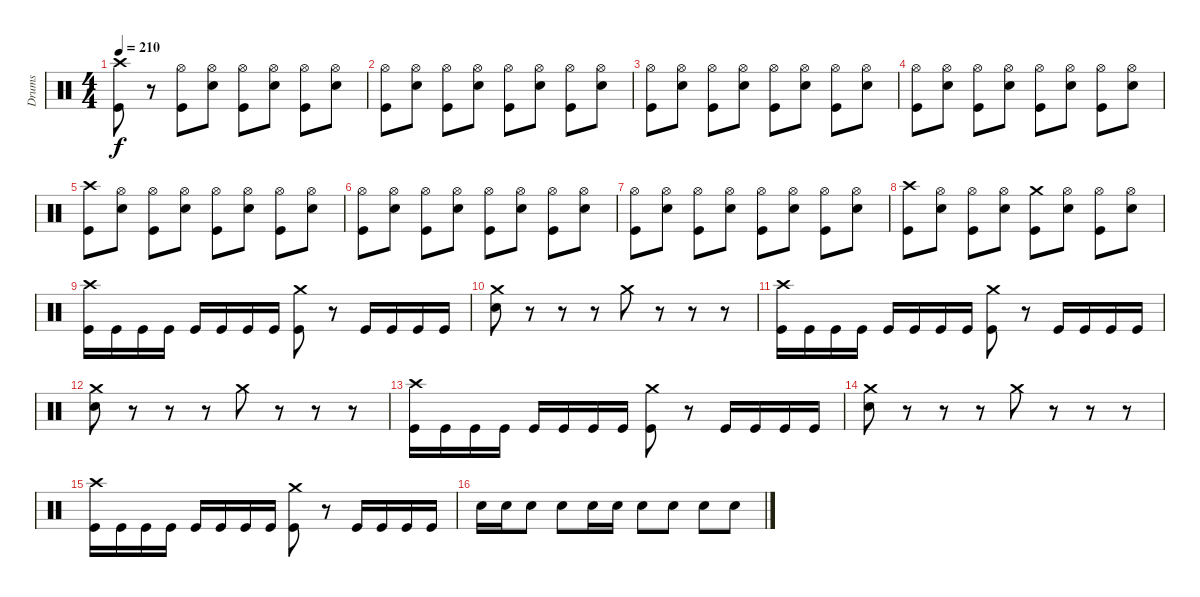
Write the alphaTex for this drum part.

\track ("Drums" "Drums") {instrument percussion}
\staff {score}
\articulation defaults
\ts (4 4)
\tempo 210
\clef neutral
\ks c
("Crash high (hit)" "Kick (hit)").8{dy f} r.8 ("Hi-Hat (open)" "Kick (hit)").8 ("Hi-Hat (open)" "Snare (hit) 2").8 ("Hi-Hat (open)" "Kick (hit)").8 ("Hi-Hat (open)" "Snare (hit) 2").8 ("Hi-Hat (open)" "Kick (hit)").8 ("Hi-Hat (open)" "Snare (hit) 2").8 |
("Hi-Hat (open)" "Kick (hit)").8 ("Hi-Hat (open)" "Snare (hit) 2").8 ("Hi-Hat (open)" "Kick (hit)").8 ("Hi-Hat (open)" "Snare (hit) 2").8 ("Hi-Hat (open)" "Kick (hit)").8 ("Hi-Hat (open)" "Snare (hit) 2").8 ("Hi-Hat (open)" "Kick (hit)").8 ("Hi-Hat (open)" "Snare (hit) 2").8 |
("Hi-Hat (open)" "Kick (hit)").8 ("Hi-Hat (open)" "Snare (hit) 2").8 ("Hi-Hat (open)" "Kick (hit)").8 ("Hi-Hat (open)" "Snare (hit) 2").8 ("Hi-Hat (open)" "Kick (hit)").8 ("Hi-Hat (open)" "Snare (hit) 2").8 ("Hi-Hat (open)" "Kick (hit)").8 ("Hi-Hat (open)" "Snare (hit) 2").8 |
("Hi-Hat (open)" "Kick (hit)").8 ("Hi-Hat (open)" "Snare (hit) 2").8 ("Hi-Hat (open)" "Kick (hit)").8 ("Hi-Hat (open)" "Snare (hit) 2").8 ("Hi-Hat (open)" "Kick (hit)").8 ("Hi-Hat (open)" "Snare (hit) 2").8 ("Hi-Hat (open)" "Kick (hit)").8 ("Hi-Hat (open)" "Snare (hit) 2").8 |
("Crash high (hit)" "Kick (hit)").8 ("Hi-Hat (open)" "Snare (hit) 2").8 ("Hi-Hat (open)" "Kick (hit)").8 ("Hi-Hat (open)" "Snare (hit) 2").8 ("Hi-Hat (open)" "Kick (hit)").8 ("Hi-Hat (open)" "Snare (hit) 2").8 ("Hi-Hat (open)" "Kick (hit)").8 ("Hi-Hat (open)" "Snare (hit) 2").8 |
("Hi-Hat (open)" "Kick (hit)").8 ("Hi-Hat (open)" "Snare (hit) 2").8 ("Hi-Hat (open)" "Kick (hit)").8 ("Hi-Hat (open)" "Snare (hit) 2").8 ("Hi-Hat (open)" "Kick (hit)").8 ("Hi-Hat (open)" "Snare (hit) 2").8 ("Hi-Hat (open)" "Kick (hit)").8 ("Hi-Hat (open)" "Snare (hit) 2").8 |
("Hi-Hat (open)" "Kick (hit)").8 ("Hi-Hat (open)" "Snare (hit) 2").8 ("Hi-Hat (open)" "Kick (hit)").8 ("Hi-Hat (open)" "Snare (hit) 2").8 ("Hi-Hat (open)" "Kick (hit)").8 ("Hi-Hat (open)" "Snare (hit) 2").8 ("Hi-Hat (open)" "Kick (hit)").8 ("Hi-Hat (open)" "Snare (hit) 2").8 |
("Crash high (hit)" "Kick (hit)").8 ("Hi-Hat (open)" "Snare (hit) 2").8 ("Hi-Hat (open)" "Kick (hit)").8 ("Hi-Hat (open)" "Snare (hit) 2").8 ("Crash medium (hit)" "Kick (hit)").8 ("Hi-Hat (open)" "Snare (hit) 2").8 ("Hi-Hat (open)" "Kick (hit)").8 ("Hi-Hat (open)" "Snare (hit) 2").8 |
("Crash high (hit)" "Kick (hit)").16 "Kick (hit)".16 "Kick (hit)".16 "Kick (hit)".16 "Kick (hit)".16 "Kick (hit)".16 "Kick (hit)".16 "Kick (hit)".16 ("Crash medium (hit)" "Kick (hit)").8 r.8 "Kick (hit)".16 "Kick (hit)".16 "Kick (hit)".16 "Kick (hit)".16 |
("Crash medium (hit)" "Snare (hit) 2").8 r.8 r.8 r.8 "Crash medium (hit)".8 r.8 r.8 r.8 |
("Crash high (hit)" "Kick (hit)").16 "Kick (hit)".16 "Kick (hit)".16 "Kick (hit)".16 "Kick (hit)".16 "Kick (hit)".16 "Kick (hit)".16 "Kick (hit)".16 ("Crash medium (hit)" "Kick (hit)").8 r.8 "Kick (hit)".16 "Kick (hit)".16 "Kick (hit)".16 "Kick (hit)".16 |
("Crash medium (hit)" "Snare (hit) 2").8 r.8 r.8 r.8 "Crash medium (hit)".8 r.8 r.8 r.8 |
("Crash high (hit)" "Kick (hit)").16 "Kick (hit)".16 "Kick (hit)".16 "Kick (hit)".16 "Kick (hit)".16 "Kick (hit)".16 "Kick (hit)".16 "Kick (hit)".16 ("Crash medium (hit)" "Kick (hit)").8 r.8 "Kick (hit)".16 "Kick (hit)".16 "Kick (hit)".16 "Kick (hit)".16 |
("Crash medium (hit)" "Snare (hit) 2").8 r.8 r.8 r.8 "Crash medium (hit)".8 r.8 r.8 r.8 |
("Crash high (hit)" "Kick (hit)").16 "Kick (hit)".16 "Kick (hit)".16 "Kick (hit)".16 "Kick (hit)".16 "Kick (hit)".16 "Kick (hit)".16 "Kick (hit)".16 ("Crash medium (hit)" "Kick (hit)").8 r.8 "Kick (hit)".16 "Kick (hit)".16 "Kick (hit)".16 "Kick (hit)".16 |
"Snare (hit) 2".16 "Snare (hit) 2".16 "Snare (hit) 2".8 "Snare (hit) 2".8 "Snare (hit) 2".16 "Snare (hit) 2".16 "Snare (hit) 2".8 "Snare (hit) 2".8 "Snare (hit) 2".8 "Snare (hit) 2".8
